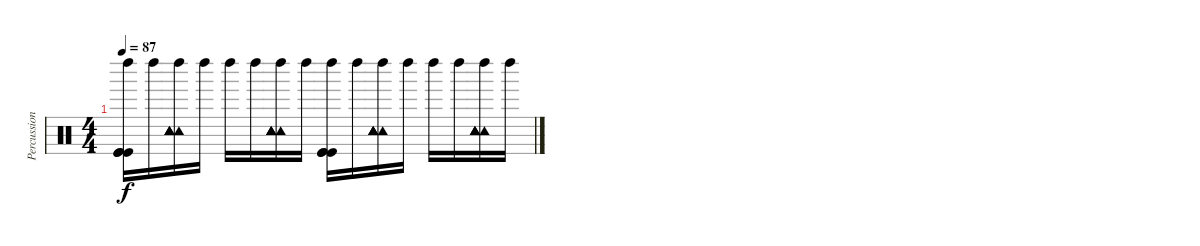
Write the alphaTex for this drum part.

\track ("Percussions" "Percussion") {instrument percussion}
\staff {score}
\articulation defaults
\ts (4 4)
\tempo 87
\clef neutral
\ks c
("Kick (hit)" "Kick (hit)" "Kick (hit)" "Left Maraca (hit)").16{dy f} "Left Maraca (hit)".16 ("Tambourine (hit)" "Tambourine (hit)" "Tambourine (hit)" "Tambourine (hit)" "Left Maraca (hit)" "Tambourine (hit)").16 "Left Maraca (hit)".16 "Left Maraca (hit)".16 "Left Maraca (hit)".16 ("Tambourine (hit)" "Tambourine (hit)" "Tambourine (hit)" "Tambourine (hit)" "Left Maraca (hit)" "Tambourine (hit)").16 "Left Maraca (hit)".16 ("Kick (hit)" "Kick (hit)" "Kick (hit)" "Left Maraca (hit)").16 "Left Maraca (hit)".16 ("Tambourine (hit)" "Tambourine (hit)" "Tambourine (hit)" "Tambourine (hit)" "Left Maraca (hit)" "Tambourine (hit)").16 "Left Maraca (hit)".16 "Left Maraca (hit)".16 "Left Maraca (hit)".16 ("Tambourine (hit)" "Tambourine (hit)" "Tambourine (hit)" "Tambourine (hit)" "Left Maraca (hit)" "Tambourine (hit)").16 "Left Maraca (hit)".16
